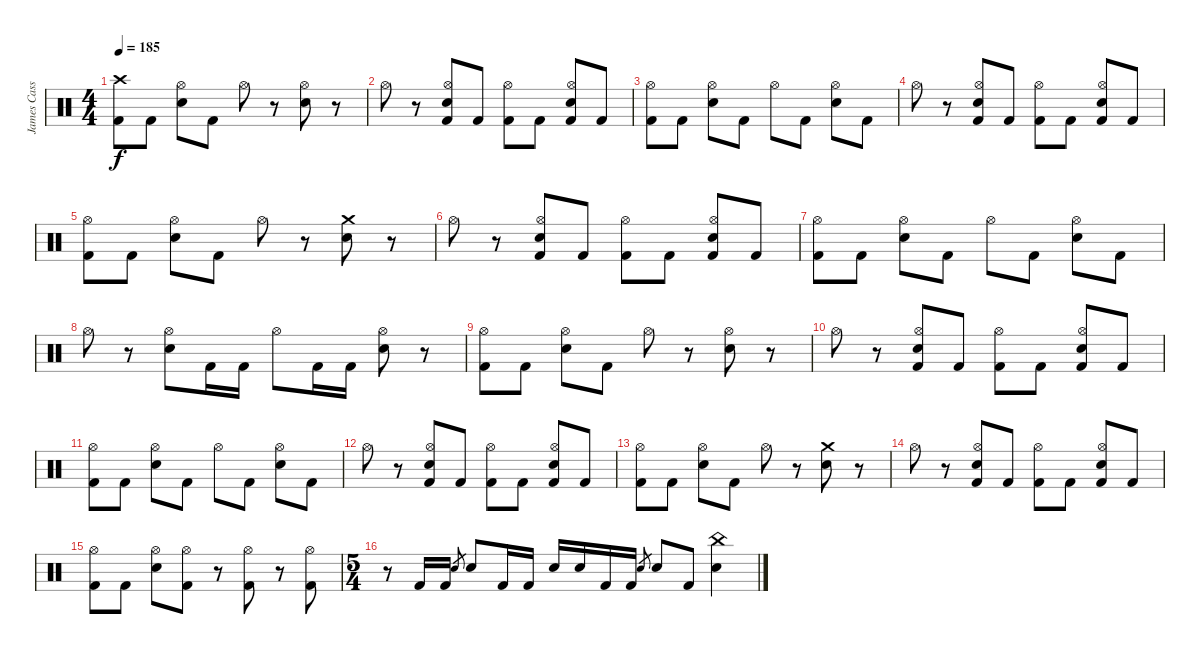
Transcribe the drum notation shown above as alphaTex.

\track ("James Cassells (Drums)" "James Cass") {instrument percussion}
\staff {score}
\articulation defaults
\ts (4 4)
\tempo 185
\clef neutral
\ks c
("Crash high (hit)" "Kick (hit) 2").8{dy f} "Kick (hit) 2".8 ("Hi-Hat (open)" "Snare (hit) 2").8 "Kick (hit) 2".8 "Hi-Hat (open)".8 r.8 ("Hi-Hat (open)" "Snare (hit) 2").8 r.8 |
"Hi-Hat (open)".8 r.8 ("Hi-Hat (open)" "Snare (hit) 2" "Kick (hit) 2").8 "Kick (hit) 2".8 ("Hi-Hat (open)" "Kick (hit) 2").8 "Kick (hit) 2".8 ("Hi-Hat (open)" "Snare (hit) 2" "Kick (hit) 2").8 "Kick (hit) 2".8 |
("Hi-Hat (open)" "Kick (hit) 2").8 "Kick (hit) 2".8 ("Hi-Hat (open)" "Snare (hit) 2").8 "Kick (hit) 2".8 "Hi-Hat (open)".8 "Kick (hit) 2".8 ("Hi-Hat (open)" "Snare (hit) 2").8 "Kick (hit) 2".8 |
"Hi-Hat (open)".8 r.8 ("Hi-Hat (open)" "Snare (hit) 2" "Kick (hit) 2").8 "Kick (hit) 2".8 ("Hi-Hat (open)" "Kick (hit) 2").8 "Kick (hit) 2".8 ("Hi-Hat (open)" "Snare (hit) 2" "Kick (hit) 2").8 "Kick (hit) 2".8 |
("Hi-Hat (open)" "Kick (hit) 2").8 "Kick (hit) 2".8 ("Hi-Hat (open)" "Snare (hit) 2").8 "Kick (hit) 2".8 "Hi-Hat (open)".8 r.8 ("Crash medium (hit)" "Snare (hit) 2").8 r.8 |
"Hi-Hat (open)".8 r.8 ("Hi-Hat (open)" "Snare (hit) 2" "Kick (hit) 2").8 "Kick (hit) 2".8 ("Hi-Hat (open)" "Kick (hit) 2").8 "Kick (hit) 2".8 ("Hi-Hat (open)" "Snare (hit) 2" "Kick (hit) 2").8 "Kick (hit) 2".8 |
("Hi-Hat (open)" "Kick (hit) 2").8 "Kick (hit) 2".8 ("Hi-Hat (open)" "Snare (hit) 2").8 "Kick (hit) 2".8 "Hi-Hat (open)".8 "Kick (hit) 2".8 ("Hi-Hat (open)" "Snare (hit) 2").8 "Kick (hit) 2".8 |
"Hi-Hat (open)".8 r.8 ("Hi-Hat (open)" "Snare (hit) 2").8 "Kick (hit) 2".16 "Kick (hit) 2".16 "Hi-Hat (open)".8 "Kick (hit) 2".16 "Kick (hit) 2".16 ("Hi-Hat (open)" "Snare (hit) 2").8 r.8 |
("Hi-Hat (open)" "Kick (hit) 2").8 "Kick (hit) 2".8 ("Hi-Hat (open)" "Snare (hit) 2").8 "Kick (hit) 2".8 "Hi-Hat (open)".8 r.8 ("Hi-Hat (open)" "Snare (hit) 2").8 r.8 |
"Hi-Hat (open)".8 r.8 ("Hi-Hat (open)" "Snare (hit) 2" "Kick (hit) 2").8 "Kick (hit) 2".8 ("Hi-Hat (open)" "Kick (hit) 2").8 "Kick (hit) 2".8 ("Hi-Hat (open)" "Snare (hit) 2" "Kick (hit) 2").8 "Kick (hit) 2".8 |
("Hi-Hat (open)" "Kick (hit) 2").8 "Kick (hit) 2".8 ("Hi-Hat (open)" "Snare (hit) 2").8 "Kick (hit) 2".8 "Hi-Hat (open)".8 "Kick (hit) 2".8 ("Hi-Hat (open)" "Snare (hit) 2").8 "Kick (hit) 2".8 |
"Hi-Hat (open)".8 r.8 ("Hi-Hat (open)" "Snare (hit) 2" "Kick (hit) 2").8 "Kick (hit) 2".8 ("Hi-Hat (open)" "Kick (hit) 2").8 "Kick (hit) 2".8 ("Hi-Hat (open)" "Snare (hit) 2" "Kick (hit) 2").8 "Kick (hit) 2".8 |
("Hi-Hat (open)" "Kick (hit) 2").8 "Kick (hit) 2".8 ("Hi-Hat (open)" "Snare (hit) 2").8 "Kick (hit) 2".8 "Hi-Hat (open)".8 r.8 ("Crash medium (hit)" "Snare (hit) 2").8 r.8 |
"Hi-Hat (open)".8 r.8 ("Hi-Hat (open)" "Snare (hit) 2" "Kick (hit) 2").8 "Kick (hit) 2".8 ("Hi-Hat (open)" "Kick (hit) 2").8 "Kick (hit) 2".8 ("Hi-Hat (open)" "Snare (hit) 2" "Kick (hit) 2").8 "Kick (hit) 2".8 |
("Hi-Hat (open)" "Kick (hit) 2").8 "Kick (hit) 2".8 ("Hi-Hat (open)" "Snare (hit) 2").8 ("Hi-Hat (open)" "Kick (hit) 2").8 r.8 ("Hi-Hat (open)" "Kick (hit) 2").8 r.8 ("Hi-Hat (open)" "Kick (hit) 2").8 |
\ts (5 4)
r.8 "Kick (hit) 2".16 "Kick (hit) 2".16 "Snare (hit) 2".8{gr} "Snare (hit) 2".8 "Kick (hit) 2".16 "Kick (hit) 2".16 "Snare (hit) 2".16 "Snare (hit) 2".16 "Kick (hit) 2".16 "Kick (hit) 2".16 "Snare (hit) 2".8{gr} "Snare (hit) 2".8 "Kick (hit) 2".8 ("China (hit)" "Snare (hit) 2").4
